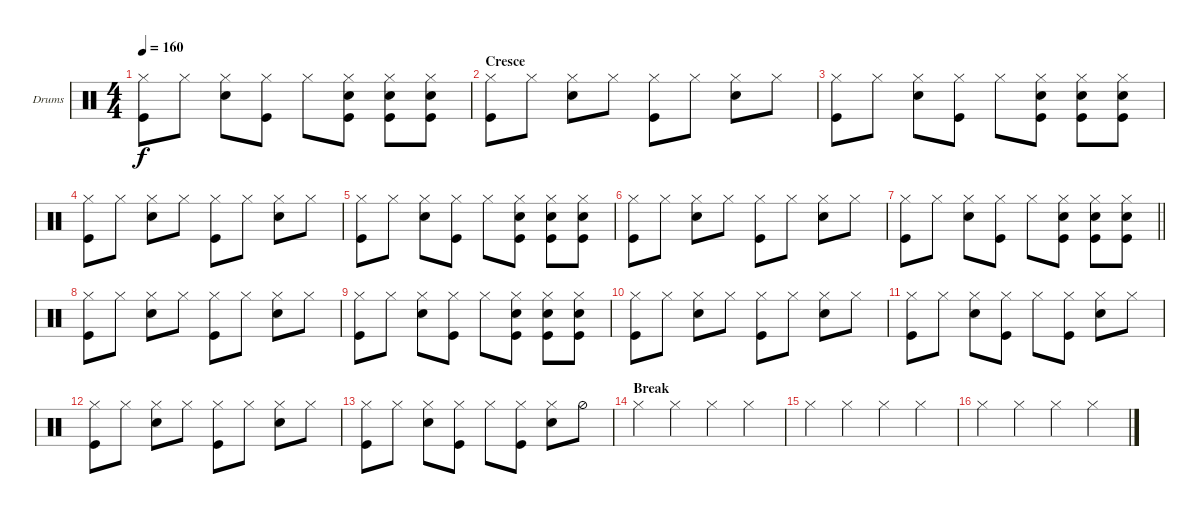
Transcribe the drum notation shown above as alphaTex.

\bracketExtendMode groupsimilarinstruments
\firstSystemTrackNameOrientation horizontal
\otherSystemsTrackNameOrientation horizontal
\track ("Fabrizio" "Drums") {instrument percussion}
\staff {score}
\articulation defaults
\ts (4 4)
\tempo 160
\clef neutral
\ks c
("Hi-Hat (closed)" "Kick (hit)").8{dy f} "Hi-Hat (closed)".8 ("Hi-Hat (closed)" "Snare (hit) 2").8 ("Hi-Hat (closed)" "Kick (hit)").8 "Hi-Hat (closed)".8 ("Hi-Hat (closed)" "Snare (hit) 2" "Kick (hit)").8 ("Hi-Hat (closed)" "Snare (hit) 2" "Kick (hit)").8 ("Hi-Hat (closed)" "Snare (hit) 2" "Kick (hit)").8 |
\section ("" "Cresce")
("Hi-Hat (closed)" "Kick (hit)").8 "Hi-Hat (closed)".8 ("Hi-Hat (closed)" "Snare (hit) 2").8 "Hi-Hat (closed)".8 ("Hi-Hat (closed)" "Kick (hit)").8 "Hi-Hat (closed)".8 ("Hi-Hat (closed)" "Snare (hit) 2").8 "Hi-Hat (closed)".8 |
("Hi-Hat (closed)" "Kick (hit)").8 "Hi-Hat (closed)".8 ("Hi-Hat (closed)" "Snare (hit) 2").8 ("Hi-Hat (closed)" "Kick (hit)").8 "Hi-Hat (closed)".8 ("Hi-Hat (closed)" "Snare (hit) 2" "Kick (hit)").8 ("Hi-Hat (closed)" "Snare (hit) 2" "Kick (hit)").8 ("Hi-Hat (closed)" "Snare (hit) 2" "Kick (hit)").8 |
("Hi-Hat (closed)" "Kick (hit)").8 "Hi-Hat (closed)".8 ("Hi-Hat (closed)" "Snare (hit) 2").8 "Hi-Hat (closed)".8 ("Hi-Hat (closed)" "Kick (hit)").8 "Hi-Hat (closed)".8 ("Hi-Hat (closed)" "Snare (hit) 2").8 "Hi-Hat (closed)".8 |
("Hi-Hat (closed)" "Kick (hit)").8 "Hi-Hat (closed)".8 ("Hi-Hat (closed)" "Snare (hit) 2").8 ("Hi-Hat (closed)" "Kick (hit)").8 "Hi-Hat (closed)".8 ("Hi-Hat (closed)" "Snare (hit) 2" "Kick (hit)").8 ("Hi-Hat (closed)" "Snare (hit) 2" "Kick (hit)").8 ("Hi-Hat (closed)" "Snare (hit) 2" "Kick (hit)").8 |
("Hi-Hat (closed)" "Kick (hit)").8 "Hi-Hat (closed)".8 ("Hi-Hat (closed)" "Snare (hit) 2").8 "Hi-Hat (closed)".8 ("Hi-Hat (closed)" "Kick (hit)").8 "Hi-Hat (closed)".8 ("Hi-Hat (closed)" "Snare (hit) 2").8 "Hi-Hat (closed)".8 |
\barLineRight lightlight
("Hi-Hat (closed)" "Kick (hit)").8 "Hi-Hat (closed)".8 ("Hi-Hat (closed)" "Snare (hit) 2").8 ("Hi-Hat (closed)" "Kick (hit)").8 "Hi-Hat (closed)".8 ("Hi-Hat (closed)" "Snare (hit) 2" "Kick (hit)").8 ("Hi-Hat (closed)" "Snare (hit) 2" "Kick (hit)").8 ("Hi-Hat (closed)" "Snare (hit) 2" "Kick (hit)").8 |
("Hi-Hat (closed)" "Kick (hit)").8 "Hi-Hat (closed)".8 ("Hi-Hat (closed)" "Snare (hit) 2").8 "Hi-Hat (closed)".8 ("Hi-Hat (closed)" "Kick (hit)").8 "Hi-Hat (closed)".8 ("Hi-Hat (closed)" "Snare (hit) 2").8 "Hi-Hat (closed)".8 |
("Hi-Hat (closed)" "Kick (hit)").8 "Hi-Hat (closed)".8 ("Hi-Hat (closed)" "Snare (hit) 2").8 ("Hi-Hat (closed)" "Kick (hit)").8 "Hi-Hat (closed)".8 ("Hi-Hat (closed)" "Snare (hit) 2" "Kick (hit)").8 ("Hi-Hat (closed)" "Snare (hit) 2" "Kick (hit)").8 ("Hi-Hat (closed)" "Snare (hit) 2" "Kick (hit)").8 |
("Hi-Hat (closed)" "Kick (hit)").8 "Hi-Hat (closed)".8 ("Hi-Hat (closed)" "Snare (hit) 2").8 "Hi-Hat (closed)".8 ("Hi-Hat (closed)" "Kick (hit)").8 "Hi-Hat (closed)".8 ("Hi-Hat (closed)" "Snare (hit) 2").8 "Hi-Hat (closed)".8 |
("Hi-Hat (closed)" "Kick (hit)").8 "Hi-Hat (closed)".8 ("Hi-Hat (closed)" "Snare (hit) 2").8 ("Hi-Hat (closed)" "Kick (hit)").8 "Hi-Hat (closed)".8 ("Hi-Hat (closed)" "Kick (hit)").8 ("Hi-Hat (closed)" "Snare (hit) 2").8 "Hi-Hat (closed)".8 |
("Hi-Hat (closed)" "Kick (hit)").8 "Hi-Hat (closed)".8 ("Hi-Hat (closed)" "Snare (hit) 2").8 "Hi-Hat (closed)".8 ("Hi-Hat (closed)" "Kick (hit)").8 "Hi-Hat (closed)".8 ("Hi-Hat (closed)" "Snare (hit) 2").8 "Hi-Hat (closed)".8 |
("Hi-Hat (closed)" "Kick (hit)").8 "Hi-Hat (closed)".8 ("Hi-Hat (closed)" "Snare (hit) 2").8 ("Hi-Hat (closed)" "Kick (hit)").8 "Hi-Hat (closed)".8 ("Hi-Hat (closed)" "Kick (hit)").8 ("Hi-Hat (closed)" "Snare (hit) 2").8 "Hi-Hat (half)".8 |
\section ("" "Break")
"Hi-Hat (closed)".4 "Hi-Hat (closed)".4 "Hi-Hat (closed)".4 "Hi-Hat (closed)".4 |
"Hi-Hat (closed)".4 "Hi-Hat (closed)".4 "Hi-Hat (closed)".4 "Hi-Hat (closed)".4 |
"Hi-Hat (closed)".4 "Hi-Hat (closed)".4 "Hi-Hat (closed)".4 "Hi-Hat (closed)".4
